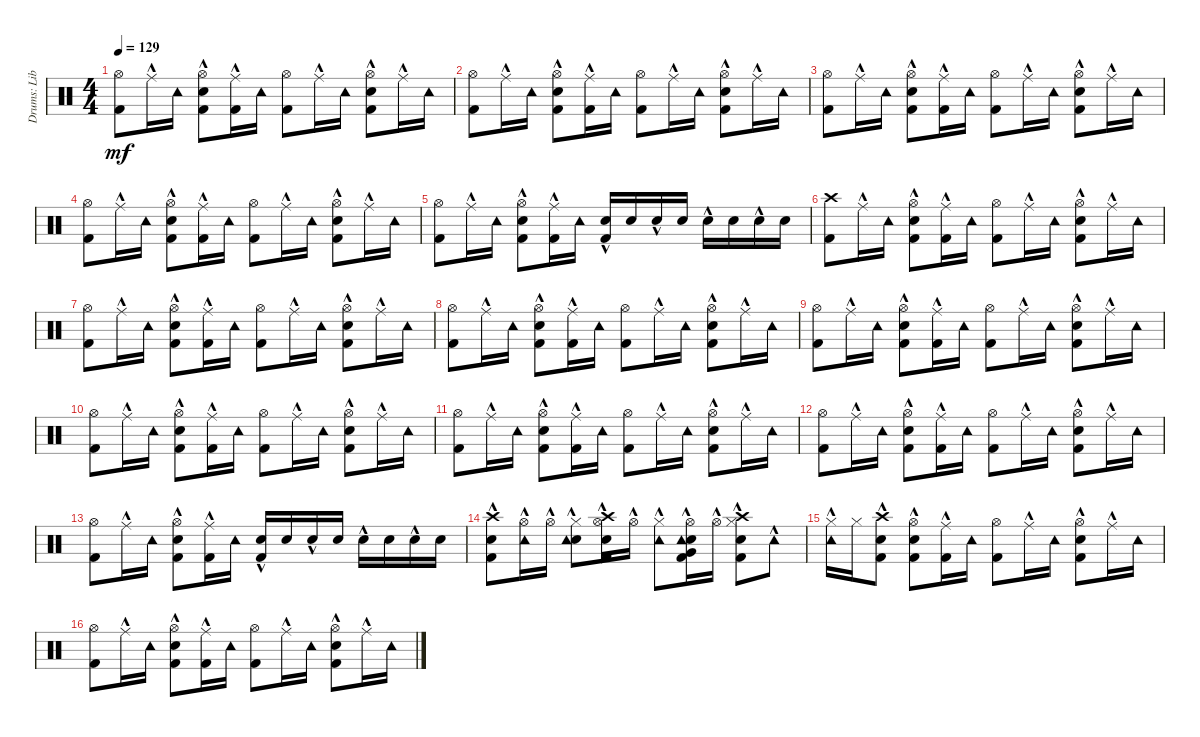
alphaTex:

\track ("Drums: Liberty" "Drums: Lib") {instrument percussion}
\staff {score}
\articulation defaults
\ts (4 4)
\tempo 129
\clef neutral
\ks c
("Hi-Hat (open)" "Kick (hit) 2").8{dy mf} "Ride (middle)"{hac}.16 "Tambourine (hit)".16 ("Hi-Hat (open)"{hac} "Snare (hit) 2"{hac} "Kick (hit) 2").8 ("Ride (middle)"{hac} "Kick (hit) 2").16 "Tambourine (hit)".16 ("Hi-Hat (open)" "Kick (hit) 2").8 "Ride (middle)"{hac}.16 "Tambourine (hit)".16 ("Hi-Hat (open)"{hac} "Snare (hit) 2"{hac} "Kick (hit) 2").8 "Ride (middle)"{hac}.16 "Tambourine (hit)".16 |
("Hi-Hat (open)" "Kick (hit) 2").8 "Ride (middle)"{hac}.16 "Tambourine (hit)".16 ("Hi-Hat (open)"{hac} "Snare (hit) 2"{hac} "Kick (hit) 2").8 ("Ride (middle)"{hac} "Kick (hit) 2").16 "Tambourine (hit)".16 ("Hi-Hat (open)" "Kick (hit) 2").8 "Ride (middle)"{hac}.16 "Tambourine (hit)".16 ("Hi-Hat (open)"{hac} "Snare (hit) 2"{hac} "Kick (hit) 2").8 "Ride (middle)"{hac}.16 "Tambourine (hit)".16 |
("Hi-Hat (open)" "Kick (hit) 2").8 "Ride (middle)"{hac}.16 "Tambourine (hit)".16 ("Hi-Hat (open)"{hac} "Snare (hit) 2"{hac} "Kick (hit) 2").8 ("Ride (middle)"{hac} "Kick (hit) 2").16 "Tambourine (hit)".16 ("Hi-Hat (open)" "Kick (hit) 2").8 "Ride (middle)"{hac}.16 "Tambourine (hit)".16 ("Hi-Hat (open)"{hac} "Snare (hit) 2"{hac} "Kick (hit) 2").8 "Ride (middle)"{hac}.16 "Tambourine (hit)".16 |
("Hi-Hat (open)" "Kick (hit) 2").8 "Ride (middle)"{hac}.16 "Tambourine (hit)".16 ("Hi-Hat (open)"{hac} "Snare (hit) 2"{hac} "Kick (hit) 2").8 ("Ride (middle)"{hac} "Kick (hit) 2").16 "Tambourine (hit)".16 ("Hi-Hat (open)" "Kick (hit) 2").8 "Ride (middle)"{hac}.16 "Tambourine (hit)".16 ("Hi-Hat (open)"{hac} "Snare (hit) 2"{hac} "Kick (hit) 2").8 "Ride (middle)"{hac}.16 "Tambourine (hit)".16 |
("Hi-Hat (open)" "Kick (hit) 2").8 "Ride (middle)"{hac}.16 "Tambourine (hit)".16 ("Hi-Hat (open)"{hac} "Snare (hit) 2"{hac} "Kick (hit) 2").8 ("Ride (middle)"{hac} "Kick (hit) 2").16 "Tambourine (hit)".16 ("Snare (hit) 2" "Kick (hit) 2"{hac}).16 "Snare (hit) 2".16 "Snare (hit) 2"{hac}.16 "Snare (hit) 2".16 "Snare (hit) 2"{hac}.16 "Snare (hit) 2".16 "Snare (hit) 2"{hac}.16 "Snare (hit) 2".16 |
("Crash high (hit)" "Kick (hit) 2").8 "Ride (middle)"{hac}.16 "Tambourine (hit)".16 ("Hi-Hat (open)"{hac} "Snare (hit) 2"{hac} "Kick (hit) 2").8 ("Ride (middle)"{hac} "Kick (hit) 2").16 "Tambourine (hit)".16 ("Hi-Hat (open)" "Kick (hit) 2").8 "Ride (middle)"{hac}.16 "Tambourine (hit)".16 ("Hi-Hat (open)"{hac} "Snare (hit) 2"{hac} "Kick (hit) 2").8 "Ride (middle)"{hac}.16 "Tambourine (hit)".16 |
("Hi-Hat (open)" "Kick (hit) 2").8 "Ride (middle)"{hac}.16 "Tambourine (hit)".16 ("Hi-Hat (open)"{hac} "Snare (hit) 2"{hac} "Kick (hit) 2").8 ("Ride (middle)"{hac} "Kick (hit) 2").16 "Tambourine (hit)".16 ("Hi-Hat (open)" "Kick (hit) 2").8 "Ride (middle)"{hac}.16 "Tambourine (hit)".16 ("Hi-Hat (open)"{hac} "Snare (hit) 2"{hac} "Kick (hit) 2").8 "Ride (middle)"{hac}.16 "Tambourine (hit)".16 |
("Hi-Hat (open)" "Kick (hit) 2").8 "Ride (middle)"{hac}.16 "Tambourine (hit)".16 ("Hi-Hat (open)"{hac} "Snare (hit) 2"{hac} "Kick (hit) 2").8 ("Ride (middle)"{hac} "Kick (hit) 2").16 "Tambourine (hit)".16 ("Hi-Hat (open)" "Kick (hit) 2").8 "Ride (middle)"{hac}.16 "Tambourine (hit)".16 ("Hi-Hat (open)"{hac} "Snare (hit) 2"{hac} "Kick (hit) 2").8 "Ride (middle)"{hac}.16 "Tambourine (hit)".16 |
("Hi-Hat (open)" "Kick (hit) 2").8 "Ride (middle)"{hac}.16 "Tambourine (hit)".16 ("Hi-Hat (open)"{hac} "Snare (hit) 2"{hac} "Kick (hit) 2").8 ("Ride (middle)"{hac} "Kick (hit) 2").16 "Tambourine (hit)".16 ("Hi-Hat (open)" "Kick (hit) 2").8 "Ride (middle)"{hac}.16 "Tambourine (hit)".16 ("Hi-Hat (open)"{hac} "Snare (hit) 2"{hac} "Kick (hit) 2").8 "Ride (middle)"{hac}.16 "Tambourine (hit)".16 |
("Hi-Hat (open)" "Kick (hit) 2").8 "Ride (middle)"{hac}.16 "Tambourine (hit)".16 ("Hi-Hat (open)"{hac} "Snare (hit) 2"{hac} "Kick (hit) 2").8 ("Ride (middle)"{hac} "Kick (hit) 2").16 "Tambourine (hit)".16 ("Hi-Hat (open)" "Kick (hit) 2").8 "Ride (middle)"{hac}.16 "Tambourine (hit)".16 ("Hi-Hat (open)"{hac} "Snare (hit) 2"{hac} "Kick (hit) 2").8 "Ride (middle)"{hac}.16 "Tambourine (hit)".16 |
("Hi-Hat (open)" "Kick (hit) 2").8 "Ride (middle)"{hac}.16 "Tambourine (hit)".16 ("Hi-Hat (open)"{hac} "Snare (hit) 2"{hac} "Kick (hit) 2").8 ("Ride (middle)"{hac} "Kick (hit) 2").16 "Tambourine (hit)".16 ("Hi-Hat (open)" "Kick (hit) 2").8 "Ride (middle)"{hac}.16 "Tambourine (hit)".16 ("Hi-Hat (open)"{hac} "Snare (hit) 2"{hac} "Kick (hit) 2").8 "Ride (middle)"{hac}.16 "Tambourine (hit)".16 |
("Hi-Hat (open)" "Kick (hit) 2").8 "Ride (middle)"{hac}.16 "Tambourine (hit)".16 ("Hi-Hat (open)"{hac} "Snare (hit) 2"{hac} "Kick (hit) 2").8 ("Ride (middle)"{hac} "Kick (hit) 2").16 "Tambourine (hit)".16 ("Hi-Hat (open)" "Kick (hit) 2").8 "Ride (middle)"{hac}.16 "Tambourine (hit)".16 ("Hi-Hat (open)"{hac} "Snare (hit) 2"{hac} "Kick (hit) 2").8 "Ride (middle)"{hac}.16 "Tambourine (hit)".16 |
("Hi-Hat (open)" "Kick (hit) 2").8 "Ride (middle)"{hac}.16 "Tambourine (hit)".16 ("Hi-Hat (open)"{hac} "Snare (hit) 2"{hac} "Kick (hit) 2").8 ("Ride (middle)"{hac} "Kick (hit) 2").16 "Tambourine (hit)".16 ("Snare (hit) 2" "Kick (hit) 2"{hac}).16 "Snare (hit) 2".16 "Snare (hit) 2"{hac}.16 "Snare (hit) 2".16 "Snare (hit) 2"{hac}.16 "Snare (hit) 2".16 "Snare (hit) 2"{hac}.16 "Snare (hit) 2".16 |
("Kick (hit) 2"{hac} "Snare (hit) 2"{hac} "Crash high (hit)"{hac}).8 ("Hi-Hat (open)"{hac} "Tambourine (hit)"{hac}).16 "Hi-Hat (open)"{hac}.16 ("Snare (hit) 2"{hac} "Hi-Hat (closed)"{hac} "Tambourine (hit)"{hac}).8 ("Kick (hit) 2"{hac} "Snare (hit) 2"{hac} "Hi-Hat (open)"{hac} "Crash high (hit)"{hac}).16 "Hi-Hat (open)"{hac}.16 ("Hi-Hat (closed)"{hac} "Tambourine (hit)"{hac}).8 ("Kick (hit) 2"{hac} "Hi-Hat (open)"{hac} "Snare (hit) 2"{hac} "Very Low Tom (hit)"{hac} "Tambourine (hit)"{hac}).16 "Hi-Hat (open)"{hac}.16 ("Kick (hit) 2"{hac} "Snare (hit) 2"{hac} "Hi-Hat (closed)"{hac} "Crash high (hit)"{hac}).8 "Tambourine (hit)"{hac}.8 |
("Hi-Hat (closed)"{hac} "Tambourine (hit)").16 "Hi-Hat (closed)".16 ("Crash high (hit)"{hac} "Snare (hit) 2"{hac} "Kick (hit) 2").8 ("Hi-Hat (open)"{hac} "Snare (hit) 2"{hac} "Kick (hit) 2").8 ("Ride (middle)"{hac} "Kick (hit) 2").16 "Tambourine (hit)".16 ("Hi-Hat (open)" "Kick (hit) 2").8 "Ride (middle)"{hac}.16 "Tambourine (hit)".16 ("Hi-Hat (open)"{hac} "Snare (hit) 2"{hac} "Kick (hit) 2").8 "Ride (middle)"{hac}.16 "Tambourine (hit)".16 |
("Hi-Hat (open)" "Kick (hit) 2").8 "Ride (middle)"{hac}.16 "Tambourine (hit)".16 ("Hi-Hat (open)"{hac} "Snare (hit) 2"{hac} "Kick (hit) 2").8 ("Ride (middle)"{hac} "Kick (hit) 2").16 "Tambourine (hit)".16 ("Hi-Hat (open)" "Kick (hit) 2").8 "Ride (middle)"{hac}.16 "Tambourine (hit)".16 ("Hi-Hat (open)"{hac} "Snare (hit) 2"{hac} "Kick (hit) 2").8 "Ride (middle)"{hac}.16 "Tambourine (hit)".16
